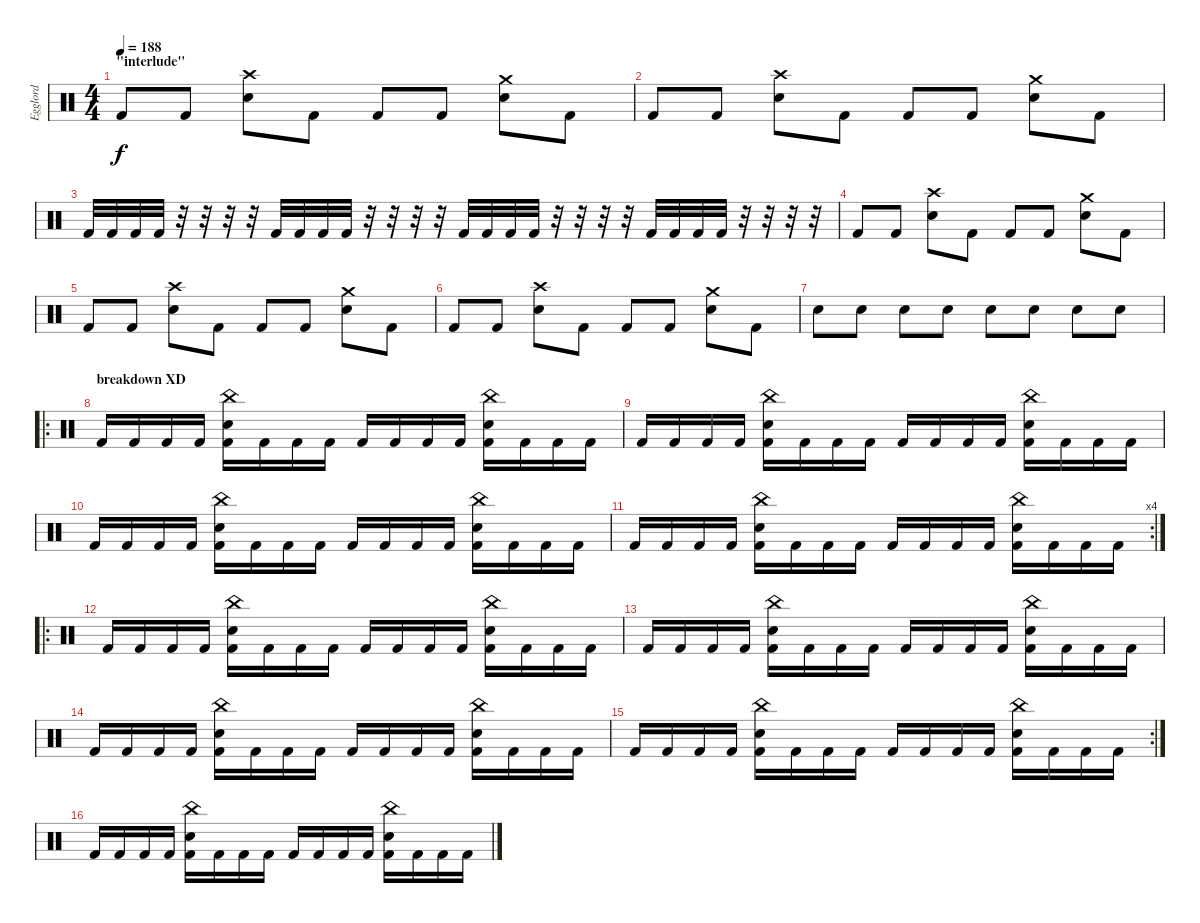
\track ("Egglord" "Egglord") {instrument percussion}
\staff {score}
\articulation defaults
\ts (4 4)
\section ("" "\"interlude\"")
\tempo 188
\clef neutral
\ks c "Kick (hit) 2".8{dy f} "Kick (hit) 2".8
("Crash high (hit)" "Electric Snare (hit)").8 "Kick (hit) 2".8 "Kick (hit) 2".8 "Kick (hit) 2".8 ("Crash medium (hit)" "Electric Snare (hit)").8 "Kick (hit) 2".8 |
"Kick (hit) 2".8 "Kick (hit) 2".8 ("Crash high (hit)" "Electric Snare (hit)").8 "Kick (hit) 2".8 "Kick (hit) 2".8 "Kick (hit) 2".8 ("Crash medium (hit)" "Electric Snare (hit)").8 "Kick (hit) 2".8 |
"Kick (hit) 2".32 "Kick (hit) 2".32 "Kick (hit) 2".32 "Kick (hit) 2".32 r.32 r.32 r.32 r.32 "Kick (hit) 2".32 "Kick (hit) 2".32 "Kick (hit) 2".32 "Kick (hit) 2".32 r.32 r.32 r.32 r.32 "Kick (hit) 2".32 "Kick (hit) 2".32 "Kick (hit) 2".32 "Kick (hit) 2".32 r.32 r.32 r.32 r.32 "Kick (hit) 2".32 "Kick (hit) 2".32 "Kick (hit) 2".32 "Kick (hit) 2".32 r.32 r.32 r.32 r.32 |
"Kick (hit) 2".8 "Kick (hit) 2".8 ("Crash high (hit)" "Electric Snare (hit)").8 "Kick (hit) 2".8 "Kick (hit) 2".8 "Kick (hit) 2".8 ("Crash medium (hit)" "Electric Snare (hit)").8 "Kick (hit) 2".8 |
"Kick (hit) 2".8 "Kick (hit) 2".8 ("Crash high (hit)" "Electric Snare (hit)").8 "Kick (hit) 2".8 "Kick (hit) 2".8 "Kick (hit) 2".8 ("Crash medium (hit)" "Electric Snare (hit)").8 "Kick (hit) 2".8 |
"Kick (hit) 2".8 "Kick (hit) 2".8 ("Crash high (hit)" "Electric Snare (hit)").8 "Kick (hit) 2".8 "Kick (hit) 2".8 "Kick (hit) 2".8 ("Crash medium (hit)" "Electric Snare (hit)").8 "Kick (hit) 2".8 |
"Electric Snare (hit)".8 "Electric Snare (hit)".8 "Electric Snare (hit)".8 "Electric Snare (hit)".8 "Electric Snare (hit)".8 "Electric Snare (hit)".8 "Electric Snare (hit)".8 "Electric Snare (hit)".8 |
\ro
\section ("" "breakdown XD")
"Kick (hit) 2".16 "Kick (hit) 2".16 "Kick (hit) 2".16 "Kick (hit) 2".16 ("China (hit)" "Electric Snare (hit)" "Kick (hit) 2").16 "Kick (hit) 2".16 "Kick (hit) 2".16 "Kick (hit) 2".16 "Kick (hit) 2".16 "Kick (hit) 2".16 "Kick (hit) 2".16 "Kick (hit) 2".16 ("China (hit)" "Electric Snare (hit)" "Kick (hit) 2").16 "Kick (hit) 2".16 "Kick (hit) 2".16 "Kick (hit) 2".16 |
"Kick (hit) 2".16 "Kick (hit) 2".16 "Kick (hit) 2".16 "Kick (hit) 2".16 ("China (hit)" "Electric Snare (hit)" "Kick (hit) 2").16 "Kick (hit) 2".16 "Kick (hit) 2".16 "Kick (hit) 2".16 "Kick (hit) 2".16 "Kick (hit) 2".16 "Kick (hit) 2".16 "Kick (hit) 2".16 ("China (hit)" "Electric Snare (hit)" "Kick (hit) 2").16 "Kick (hit) 2".16 "Kick (hit) 2".16 "Kick (hit) 2".16 |
"Kick (hit) 2".16 "Kick (hit) 2".16 "Kick (hit) 2".16 "Kick (hit) 2".16 ("Electric Snare (hit)" "China (hit)" "Kick (hit) 2").16 "Kick (hit) 2".16 "Kick (hit) 2".16 "Kick (hit) 2".16 "Kick (hit) 2".16 "Kick (hit) 2".16 "Kick (hit) 2".16 "Kick (hit) 2".16 ("China (hit)" "Electric Snare (hit)" "Kick (hit) 2").16 "Kick (hit) 2".16 "Kick (hit) 2".16 "Kick (hit) 2".16 |
\rc 4 "Kick (hit) 2".16 "Kick (hit) 2".16 "Kick (hit) 2".16 "Kick (hit) 2".16
("China (hit)" "Electric Snare (hit)" "Kick (hit) 2").16 "Kick (hit) 2".16 "Kick (hit) 2".16 "Kick (hit) 2".16 "Kick (hit) 2".16 "Kick (hit) 2".16 "Kick (hit) 2".16 "Kick (hit) 2".16 ("China (hit)" "Electric Snare (hit)" "Kick (hit) 2").16 "Kick (hit) 2".16 "Kick (hit) 2".16 "Kick (hit) 2".16 |
\ro "Kick (hit) 2".16 "Kick (hit) 2".16 "Kick (hit) 2".16 "Kick (hit) 2".16
("China (hit)" "Electric Snare (hit)" "Kick (hit) 2").16 "Kick (hit) 2".16 "Kick (hit) 2".16 "Kick (hit) 2".16 "Kick (hit) 2".16 "Kick (hit) 2".16 "Kick (hit) 2".16 "Kick (hit) 2".16 ("China (hit)" "Electric Snare (hit)" "Kick (hit) 2").16 "Kick (hit) 2".16 "Kick (hit) 2".16 "Kick (hit) 2".16 |
"Kick (hit) 2".16 "Kick (hit) 2".16 "Kick (hit) 2".16 "Kick (hit) 2".16 ("China (hit)" "Electric Snare (hit)" "Kick (hit) 2").16 "Kick (hit) 2".16 "Kick (hit) 2".16 "Kick (hit) 2".16 "Kick (hit) 2".16 "Kick (hit) 2".16 "Kick (hit) 2".16 "Kick (hit) 2".16 ("China (hit)" "Electric Snare (hit)" "Kick (hit) 2").16 "Kick (hit) 2".16 "Kick (hit) 2".16 "Kick (hit) 2".16 |
"Kick (hit) 2".16 "Kick (hit) 2".16 "Kick (hit) 2".16 "Kick (hit) 2".16 ("Electric Snare (hit)" "China (hit)" "Kick (hit) 2").16 "Kick (hit) 2".16 "Kick (hit) 2".16 "Kick (hit) 2".16 "Kick (hit) 2".16 "Kick (hit) 2".16 "Kick (hit) 2".16 "Kick (hit) 2".16 ("China (hit)" "Electric Snare (hit)" "Kick (hit) 2").16 "Kick (hit) 2".16 "Kick (hit) 2".16 "Kick (hit) 2".16 |
\rc 2 "Kick (hit) 2".16 "Kick (hit) 2".16 "Kick (hit) 2".16 "Kick (hit) 2".16
("China (hit)" "Electric Snare (hit)" "Kick (hit) 2").16 "Kick (hit) 2".16 "Kick (hit) 2".16 "Kick (hit) 2".16 "Kick (hit) 2".16 "Kick (hit) 2".16 "Kick (hit) 2".16 "Kick (hit) 2".16 ("China (hit)" "Electric Snare (hit)" "Kick (hit) 2").16 "Kick (hit) 2".16 "Kick (hit) 2".16 "Kick (hit) 2".16 |
"Kick (hit) 2".16 "Kick (hit) 2".16 "Kick (hit) 2".16 "Kick (hit) 2".16 ("China (hit)" "Electric Snare (hit)" "Kick (hit) 2").16 "Kick (hit) 2".16 "Kick (hit) 2".16 "Kick (hit) 2".16 "Kick (hit) 2".16 "Kick (hit) 2".16 "Kick (hit) 2".16 "Kick (hit) 2".16 ("China (hit)" "Electric Snare (hit)" "Kick (hit) 2").16 "Kick (hit) 2".16 "Kick (hit) 2".16 "Kick (hit) 2".16
